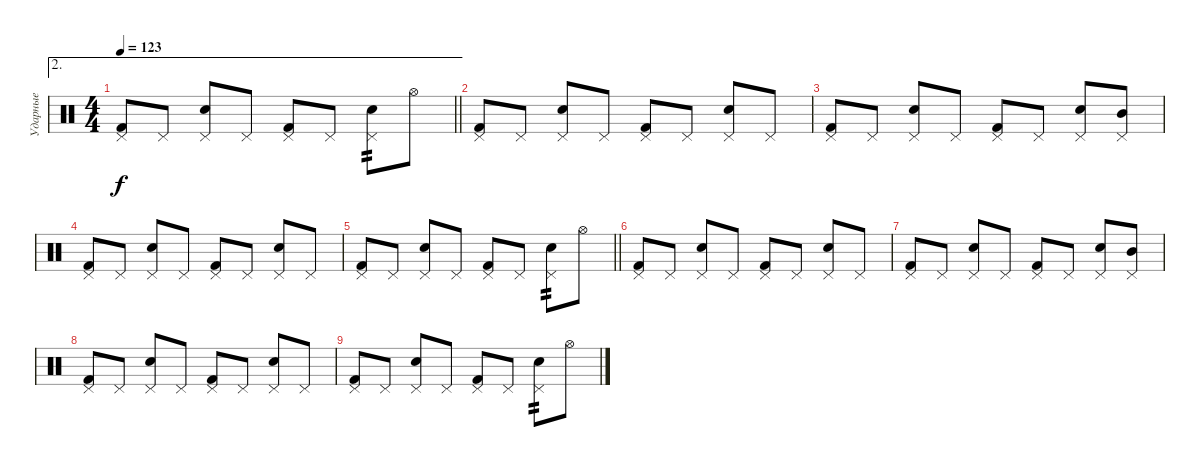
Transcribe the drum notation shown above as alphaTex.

\track ("Ударные" "Ударные") {instrument percussion}
\staff {score}
\articulation defaults
\ae 2
\ts (4 4)
\tempo 123
\clef neutral
\barLineRight lightlight
\ks c
("Pedal Hi-Hat (hit)" "Kick (hit) 2").8{dy f} "Pedal Hi-Hat (hit)".8 ("Pedal Hi-Hat (hit)" "Snare (hit) 2").8 "Pedal Hi-Hat (hit)".8 ("Pedal Hi-Hat (hit)" "Kick (hit) 2").8 "Pedal Hi-Hat (hit)".8 ("Pedal Hi-Hat (hit)" "Snare (hit) 2").8{tp 2} "Hi-Hat (open)".8 |
("Pedal Hi-Hat (hit)" "Kick (hit) 2").8 "Pedal Hi-Hat (hit)".8 ("Pedal Hi-Hat (hit)" "Snare (hit) 2").8 "Pedal Hi-Hat (hit)".8 ("Pedal Hi-Hat (hit)" "Kick (hit) 2").8 "Pedal Hi-Hat (hit)".8 ("Pedal Hi-Hat (hit)" "Snare (hit) 2").8 "Pedal Hi-Hat (hit)".8 |
("Pedal Hi-Hat (hit)" "Kick (hit) 2").8 "Pedal Hi-Hat (hit)".8 ("Pedal Hi-Hat (hit)" "Snare (hit) 2").8 "Pedal Hi-Hat (hit)".8 ("Pedal Hi-Hat (hit)" "Kick (hit) 2").8 "Pedal Hi-Hat (hit)".8 ("Pedal Hi-Hat (hit)" "Snare (hit) 2").8 ("Pedal Hi-Hat (hit)" "Mid Tom (hit)").8 |
("Pedal Hi-Hat (hit)" "Kick (hit) 2").8 "Pedal Hi-Hat (hit)".8 ("Pedal Hi-Hat (hit)" "Snare (hit) 2").8 "Pedal Hi-Hat (hit)".8 ("Pedal Hi-Hat (hit)" "Kick (hit) 2").8 "Pedal Hi-Hat (hit)".8 ("Pedal Hi-Hat (hit)" "Snare (hit) 2").8 "Pedal Hi-Hat (hit)".8 |
\barLineRight lightlight
("Pedal Hi-Hat (hit)" "Kick (hit) 2").8 "Pedal Hi-Hat (hit)".8 ("Pedal Hi-Hat (hit)" "Snare (hit) 2").8 "Pedal Hi-Hat (hit)".8 ("Pedal Hi-Hat (hit)" "Kick (hit) 2").8 "Pedal Hi-Hat (hit)".8 ("Pedal Hi-Hat (hit)" "Snare (hit) 2").8{tp 2} "Hi-Hat (open)".8 |
("Pedal Hi-Hat (hit)" "Kick (hit) 2").8 "Pedal Hi-Hat (hit)".8 ("Pedal Hi-Hat (hit)" "Snare (hit) 2").8 "Pedal Hi-Hat (hit)".8 ("Pedal Hi-Hat (hit)" "Kick (hit) 2").8 "Pedal Hi-Hat (hit)".8 ("Pedal Hi-Hat (hit)" "Snare (hit) 2").8 "Pedal Hi-Hat (hit)".8 |
("Pedal Hi-Hat (hit)" "Kick (hit) 2").8 "Pedal Hi-Hat (hit)".8 ("Pedal Hi-Hat (hit)" "Snare (hit) 2").8 "Pedal Hi-Hat (hit)".8 ("Pedal Hi-Hat (hit)" "Kick (hit) 2").8 "Pedal Hi-Hat (hit)".8 ("Pedal Hi-Hat (hit)" "Snare (hit) 2").8 ("Pedal Hi-Hat (hit)" "Mid Tom (hit)").8 |
("Pedal Hi-Hat (hit)" "Kick (hit) 2").8 "Pedal Hi-Hat (hit)".8 ("Pedal Hi-Hat (hit)" "Snare (hit) 2").8 "Pedal Hi-Hat (hit)".8 ("Pedal Hi-Hat (hit)" "Kick (hit) 2").8 "Pedal Hi-Hat (hit)".8 ("Pedal Hi-Hat (hit)" "Snare (hit) 2").8 "Pedal Hi-Hat (hit)".8 |
("Pedal Hi-Hat (hit)" "Kick (hit) 2").8 "Pedal Hi-Hat (hit)".8 ("Pedal Hi-Hat (hit)" "Snare (hit) 2").8 "Pedal Hi-Hat (hit)".8 ("Pedal Hi-Hat (hit)" "Kick (hit) 2").8 "Pedal Hi-Hat (hit)".8 ("Pedal Hi-Hat (hit)" "Snare (hit) 2").8{tp 2} "Hi-Hat (open)".8
